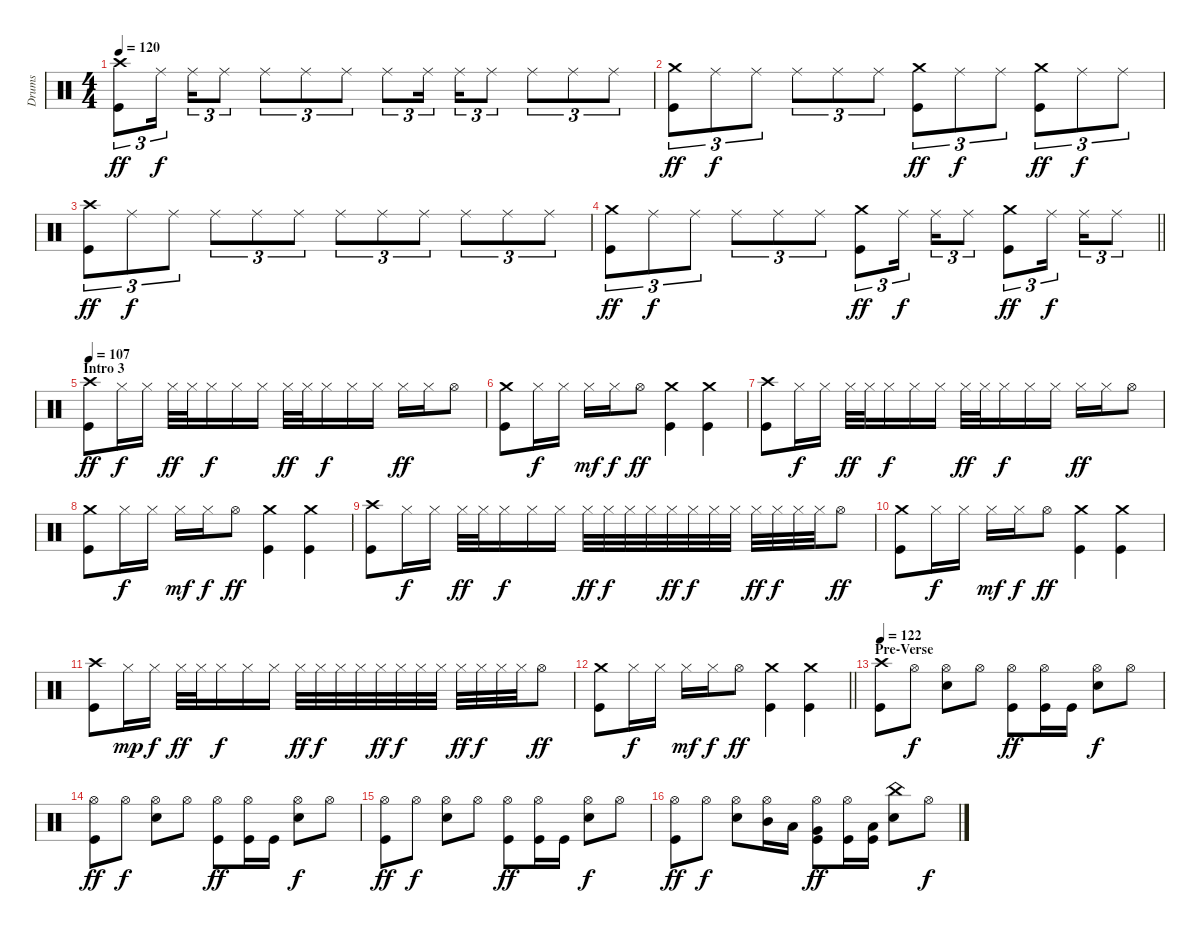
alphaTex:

\track ("Drums" "Drums") {instrument percussion}
\staff {score}
\articulation defaults
\ts (4 4)
\tempo 120
\clef neutral
\ks c
("Crash high (hit)" "Kick (hit)").8{tu (3 2) dy ff} "Ride (middle)".16{tu (3 2) dy f} "Ride (middle)".16{tu (3 2)} "Ride (middle)".8{tu (3 2)} "Ride (middle)".8{tu (3 2)} "Ride (middle)".8{tu (3 2)} "Ride (middle)".8{tu (3 2)} "Ride (middle)".8{tu (3 2)} "Ride (middle)".16{tu (3 2)} "Ride (middle)".16{tu (3 2)} "Ride (middle)".8{tu (3 2)} "Ride (middle)".8{tu (3 2)} "Ride (middle)".8{tu (3 2)} "Ride (middle)".8{tu (3 2)} |
("Crash medium (hit)" "Kick (hit)").8{tu (3 2) dy ff} "Ride (middle)".8{tu (3 2) dy f} "Ride (middle)".8{tu (3 2)} "Ride (middle)".8{tu (3 2)} "Ride (middle)".8{tu (3 2)} "Ride (middle)".8{tu (3 2)} ("Crash medium (hit)" "Kick (hit)").8{tu (3 2) dy ff} "Ride (middle)".8{tu (3 2) dy f} "Ride (middle)".8{tu (3 2)} ("Crash medium (hit)" "Kick (hit)").8{tu (3 2) dy ff} "Ride (middle)".8{tu (3 2) dy f} "Ride (middle)".8{tu (3 2)} |
("Crash high (hit)" "Kick (hit)").8{tu (3 2) dy ff} "Ride (middle)".8{tu (3 2) dy f} "Ride (middle)".8{tu (3 2)} "Ride (middle)".8{tu (3 2)} "Ride (middle)".8{tu (3 2)} "Ride (middle)".8{tu (3 2)} "Ride (middle)".8{tu (3 2)} "Ride (middle)".8{tu (3 2)} "Ride (middle)".8{tu (3 2)} "Ride (middle)".8{tu (3 2)} "Ride (middle)".8{tu (3 2)} "Ride (middle)".8{tu (3 2)} |
\barLineRight lightlight
("Crash medium (hit)" "Kick (hit)").8{tu (3 2) dy ff} "Ride (middle)".8{tu (3 2) dy f} "Ride (middle)".8{tu (3 2)} "Ride (middle)".8{tu (3 2)} "Ride (middle)".8{tu (3 2)} "Ride (middle)".8{tu (3 2)} ("Crash medium (hit)" "Kick (hit)").8{tu (3 2) dy ff} "Ride (middle)".16{tu (3 2) dy f} "Ride (middle)".16{tu (3 2)} "Ride (middle)".8{tu (3 2)} ("Crash medium (hit)" "Kick (hit)").8{tu (3 2) dy ff} "Ride (middle)".16{tu (3 2) dy f} "Ride (middle)".16{tu (3 2)} "Ride (middle)".8{tu (3 2)} |
\section ("" "Intro 3")
\tempo 107
("Crash high (hit)" "Kick (hit)").8{dy ff} "Hi-Hat (closed)".16{dy f} "Hi-Hat (closed)".16 "Hi-Hat (closed)".32{dy ff} "Hi-Hat (closed)".32 "Hi-Hat (closed)".16{dy f} "Hi-Hat (closed)".16 "Hi-Hat (closed)".16 "Hi-Hat (closed)".32{dy ff} "Hi-Hat (closed)".32 "Hi-Hat (closed)".16{dy f} "Hi-Hat (closed)".16 "Hi-Hat (closed)".16 "Hi-Hat (closed)".16{dy ff} "Hi-Hat (closed)".16 "Hi-Hat (open)".8 |
("Crash medium (hit)" "Kick (hit)").8 "Hi-Hat (closed)".16{dy f} "Hi-Hat (closed)".16 "Hi-Hat (closed)".16{dy mf} "Hi-Hat (closed)".16{dy f} "Hi-Hat (open)".8{dy ff} ("Crash medium (hit)" "Kick (hit)").4 ("Crash medium (hit)" "Kick (hit)").4 |
("Crash high (hit)" "Kick (hit)").8 "Hi-Hat (closed)".16{dy f} "Hi-Hat (closed)".16 "Hi-Hat (closed)".32{dy ff} "Hi-Hat (closed)".32 "Hi-Hat (closed)".16{dy f} "Hi-Hat (closed)".16 "Hi-Hat (closed)".16 "Hi-Hat (closed)".32{dy ff} "Hi-Hat (closed)".32 "Hi-Hat (closed)".16{dy f} "Hi-Hat (closed)".16 "Hi-Hat (closed)".16 "Hi-Hat (closed)".16{dy ff} "Hi-Hat (closed)".16 "Hi-Hat (open)".8 |
("Crash medium (hit)" "Kick (hit)").8 "Hi-Hat (closed)".16{dy f} "Hi-Hat (closed)".16 "Hi-Hat (closed)".16{dy mf} "Hi-Hat (closed)".16{dy f} "Hi-Hat (open)".8{dy ff} ("Crash medium (hit)" "Kick (hit)").4 ("Crash medium (hit)" "Kick (hit)").4 |
("Crash high (hit)" "Kick (hit)").8 "Hi-Hat (closed)".16{dy f} "Hi-Hat (closed)".16 "Hi-Hat (closed)".32{dy ff} "Hi-Hat (closed)".32 "Hi-Hat (closed)".16{dy f} "Hi-Hat (closed)".16 "Hi-Hat (closed)".16 "Hi-Hat (closed)".32{dy ff} "Hi-Hat (closed)".32{dy f} "Hi-Hat (closed)".32 "Hi-Hat (closed)".32 "Hi-Hat (closed)".32{dy ff} "Hi-Hat (closed)".32{dy f} "Hi-Hat (closed)".32 "Hi-Hat (closed)".32 "Hi-Hat (closed)".32{dy ff} "Hi-Hat (closed)".32{dy f} "Hi-Hat (closed)".32 "Hi-Hat (closed)".32 "Hi-Hat (open)".8{dy ff} |
("Crash medium (hit)" "Kick (hit)").8 "Hi-Hat (closed)".16{dy f} "Hi-Hat (closed)".16 "Hi-Hat (closed)".16{dy mf} "Hi-Hat (closed)".16{dy f} "Hi-Hat (open)".8{dy ff} ("Crash medium (hit)" "Kick (hit)").4 ("Crash medium (hit)" "Kick (hit)").4 |
("Crash high (hit)" "Kick (hit)").8 "Hi-Hat (closed)".16{dy mp} "Hi-Hat (closed)".16{dy f} "Hi-Hat (closed)".32{dy ff} "Hi-Hat (closed)".32 "Hi-Hat (closed)".16{dy f} "Hi-Hat (closed)".16 "Hi-Hat (closed)".16 "Hi-Hat (closed)".32{dy ff} "Hi-Hat (closed)".32{dy f} "Hi-Hat (closed)".32 "Hi-Hat (closed)".32 "Hi-Hat (closed)".32{dy ff} "Hi-Hat (closed)".32{dy f} "Hi-Hat (closed)".32 "Hi-Hat (closed)".32 "Hi-Hat (closed)".32{dy ff} "Hi-Hat (closed)".32{dy f} "Hi-Hat (closed)".32 "Hi-Hat (closed)".32 "Hi-Hat (open)".8{dy ff} |
\barLineRight lightlight
("Crash medium (hit)" "Kick (hit)").8 "Hi-Hat (closed)".16{dy f} "Hi-Hat (closed)".16 "Hi-Hat (closed)".16{dy mf} "Hi-Hat (closed)".16{dy f} "Hi-Hat (open)".8{dy ff} ("Crash medium (hit)" "Kick (hit)").4 ("Crash medium (hit)" "Kick (hit)").4 |
\section ("" "Pre-Verse")
\tempo 122
("Crash high (hit)" "Kick (hit)").8 "Hi-Hat (open)".8{dy f} ("Hi-Hat (open)" "Snare (hit) 2").8 "Hi-Hat (open)".8 ("Hi-Hat (open)" "Kick (hit)").8{dy ff} ("Hi-Hat (open)" "Kick (hit)").16 "Kick (hit)".16 ("Hi-Hat (open)" "Snare (hit) 2").8{dy f} "Hi-Hat (open)".8 |
("Hi-Hat (open)" "Kick (hit)").8{dy ff} "Hi-Hat (open)".8{dy f} ("Hi-Hat (open)" "Snare (hit) 2").8 "Hi-Hat (open)".8 ("Hi-Hat (open)" "Kick (hit)").8{dy ff} ("Hi-Hat (open)" "Kick (hit)").16 "Kick (hit)".16 ("Hi-Hat (open)" "Snare (hit) 2").8{dy f} "Hi-Hat (open)".8 |
("Hi-Hat (open)" "Kick (hit)").8{dy ff} "Hi-Hat (open)".8{dy f} ("Hi-Hat (open)" "Snare (hit) 2").8 "Hi-Hat (open)".8 ("Hi-Hat (open)" "Kick (hit)").8{dy ff} ("Hi-Hat (open)" "Kick (hit)").16 "Kick (hit)".16 ("Hi-Hat (open)" "Snare (hit) 2").8{dy f} "Hi-Hat (open)".8 |
("Hi-Hat (open)" "Kick (hit)").8{dy ff} "Hi-Hat (open)".8{dy f} ("Hi-Hat (open)" "Snare (hit) 2").8 ("Hi-Hat (open)" "Mid Tom (hit)").16 "Low Tom (hit)".16 ("Hi-Hat (open)" "Very Low Tom (hit)" "Kick (hit)").8{dy ff} ("Hi-Hat (open)" "Kick (hit)").16 ("Low Floor Tom (hit)" "Kick (hit)").16 ("China (hit)" "Snare (hit) 2").8 "Hi-Hat (open)".8{dy f}
